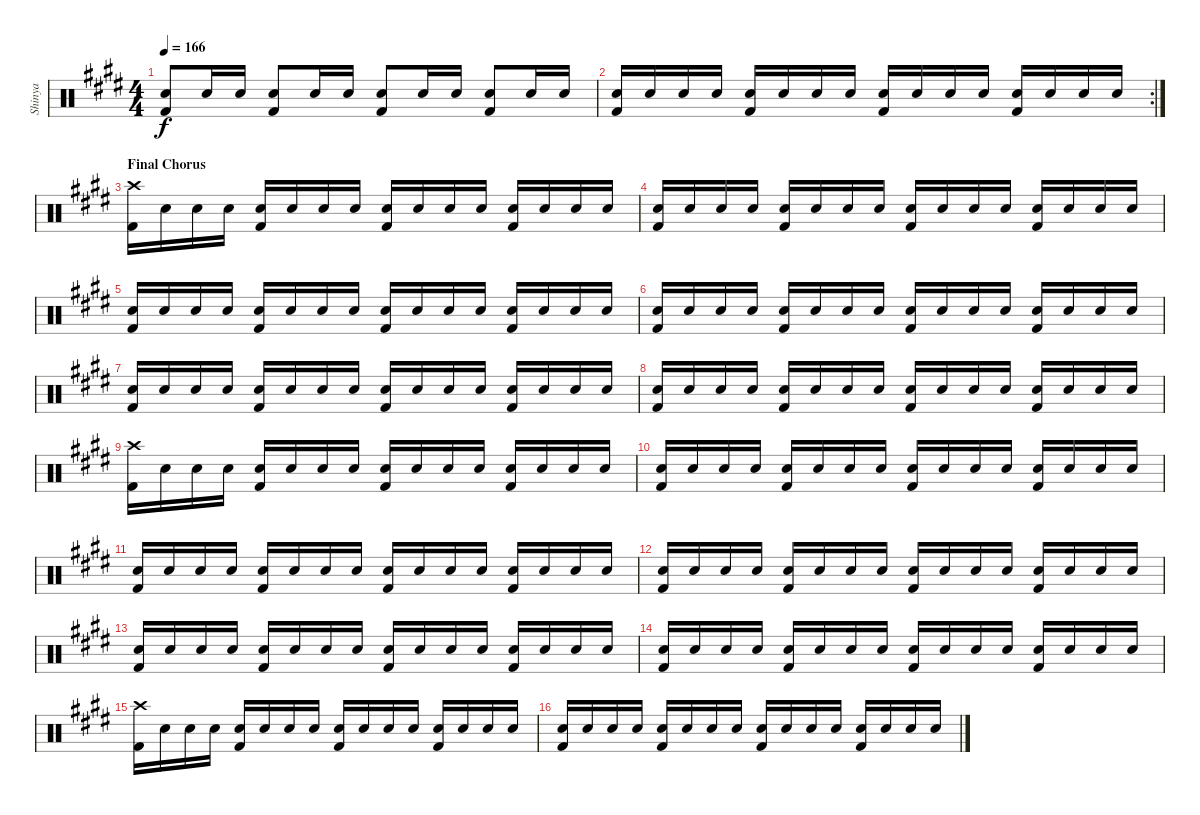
\track ("Shinya" "Shinya") {instrument percussion}
\staff {score}
\articulation defaults
\ts (4 4)
\tempo 166
\clef neutral
\ks e
("Snare (hit) 2" "Kick (hit) 2").8{dy f} "Snare (hit) 2".16 "Snare (hit) 2".16 ("Snare (hit) 2" "Kick (hit) 2").8 "Snare (hit) 2".16 "Snare (hit) 2".16 ("Snare (hit) 2" "Kick (hit) 2").8 "Snare (hit) 2".16 "Snare (hit) 2".16 ("Snare (hit) 2" "Kick (hit) 2").8 "Snare (hit) 2".16 "Snare (hit) 2".16 |
\rc 2
("Snare (hit) 2" "Kick (hit) 2").16 "Snare (hit) 2".16 "Snare (hit) 2".16 "Snare (hit) 2".16 ("Snare (hit) 2" "Kick (hit) 2").16 "Snare (hit) 2".16 "Snare (hit) 2".16 "Snare (hit) 2".16 ("Snare (hit) 2" "Kick (hit) 2").16 "Snare (hit) 2".16 "Snare (hit) 2".16 "Snare (hit) 2".16 ("Snare (hit) 2" "Kick (hit) 2").16 "Snare (hit) 2".16 "Snare (hit) 2".16 "Snare (hit) 2".16 |
\section ("" "Final Chorus")
("Crash high (hit)" "Kick (hit) 2").16 "Snare (hit) 2".16 "Snare (hit) 2".16 "Snare (hit) 2".16 ("Snare (hit) 2" "Kick (hit) 2").16 "Snare (hit) 2".16 "Snare (hit) 2".16 "Snare (hit) 2".16 ("Snare (hit) 2" "Kick (hit) 2").16 "Snare (hit) 2".16 "Snare (hit) 2".16 "Snare (hit) 2".16 ("Snare (hit) 2" "Kick (hit) 2").16 "Snare (hit) 2".16 "Snare (hit) 2".16 "Snare (hit) 2".16 |
("Snare (hit) 2" "Kick (hit) 2").16 "Snare (hit) 2".16 "Snare (hit) 2".16 "Snare (hit) 2".16 ("Snare (hit) 2" "Kick (hit) 2").16 "Snare (hit) 2".16 "Snare (hit) 2".16 "Snare (hit) 2".16 ("Snare (hit) 2" "Kick (hit) 2").16 "Snare (hit) 2".16 "Snare (hit) 2".16 "Snare (hit) 2".16 ("Snare (hit) 2" "Kick (hit) 2").16 "Snare (hit) 2".16 "Snare (hit) 2".16 "Snare (hit) 2".16 |
("Snare (hit) 2" "Kick (hit) 2").16 "Snare (hit) 2".16 "Snare (hit) 2".16 "Snare (hit) 2".16 ("Snare (hit) 2" "Kick (hit) 2").16 "Snare (hit) 2".16 "Snare (hit) 2".16 "Snare (hit) 2".16 ("Snare (hit) 2" "Kick (hit) 2").16 "Snare (hit) 2".16 "Snare (hit) 2".16 "Snare (hit) 2".16 ("Snare (hit) 2" "Kick (hit) 2").16 "Snare (hit) 2".16 "Snare (hit) 2".16 "Snare (hit) 2".16 |
("Snare (hit) 2" "Kick (hit) 2").16 "Snare (hit) 2".16 "Snare (hit) 2".16 "Snare (hit) 2".16 ("Snare (hit) 2" "Kick (hit) 2").16 "Snare (hit) 2".16 "Snare (hit) 2".16 "Snare (hit) 2".16 ("Snare (hit) 2" "Kick (hit) 2").16 "Snare (hit) 2".16 "Snare (hit) 2".16 "Snare (hit) 2".16 ("Snare (hit) 2" "Kick (hit) 2").16 "Snare (hit) 2".16 "Snare (hit) 2".16 "Snare (hit) 2".16 |
("Snare (hit) 2" "Kick (hit) 2").16 "Snare (hit) 2".16 "Snare (hit) 2".16 "Snare (hit) 2".16 ("Snare (hit) 2" "Kick (hit) 2").16 "Snare (hit) 2".16 "Snare (hit) 2".16 "Snare (hit) 2".16 ("Snare (hit) 2" "Kick (hit) 2").16 "Snare (hit) 2".16 "Snare (hit) 2".16 "Snare (hit) 2".16 ("Snare (hit) 2" "Kick (hit) 2").16 "Snare (hit) 2".16 "Snare (hit) 2".16 "Snare (hit) 2".16 |
("Snare (hit) 2" "Kick (hit) 2").16 "Snare (hit) 2".16 "Snare (hit) 2".16 "Snare (hit) 2".16 ("Snare (hit) 2" "Kick (hit) 2").16 "Snare (hit) 2".16 "Snare (hit) 2".16 "Snare (hit) 2".16 ("Snare (hit) 2" "Kick (hit) 2").16 "Snare (hit) 2".16 "Snare (hit) 2".16 "Snare (hit) 2".16 ("Snare (hit) 2" "Kick (hit) 2").16 "Snare (hit) 2".16 "Snare (hit) 2".16 "Snare (hit) 2".16 |
("Crash high (hit)" "Kick (hit) 2").16 "Snare (hit) 2".16 "Snare (hit) 2".16 "Snare (hit) 2".16 ("Snare (hit) 2" "Kick (hit) 2").16 "Snare (hit) 2".16 "Snare (hit) 2".16 "Snare (hit) 2".16 ("Snare (hit) 2" "Kick (hit) 2").16 "Snare (hit) 2".16 "Snare (hit) 2".16 "Snare (hit) 2".16 ("Snare (hit) 2" "Kick (hit) 2").16 "Snare (hit) 2".16 "Snare (hit) 2".16 "Snare (hit) 2".16 |
("Snare (hit) 2" "Kick (hit) 2").16 "Snare (hit) 2".16 "Snare (hit) 2".16 "Snare (hit) 2".16 ("Snare (hit) 2" "Kick (hit) 2").16 "Snare (hit) 2".16 "Snare (hit) 2".16 "Snare (hit) 2".16 ("Snare (hit) 2" "Kick (hit) 2").16 "Snare (hit) 2".16 "Snare (hit) 2".16 "Snare (hit) 2".16 ("Snare (hit) 2" "Kick (hit) 2").16 "Snare (hit) 2".16 "Snare (hit) 2".16 "Snare (hit) 2".16 |
("Snare (hit) 2" "Kick (hit) 2").16 "Snare (hit) 2".16 "Snare (hit) 2".16 "Snare (hit) 2".16 ("Snare (hit) 2" "Kick (hit) 2").16 "Snare (hit) 2".16 "Snare (hit) 2".16 "Snare (hit) 2".16 ("Snare (hit) 2" "Kick (hit) 2").16 "Snare (hit) 2".16 "Snare (hit) 2".16 "Snare (hit) 2".16 ("Snare (hit) 2" "Kick (hit) 2").16 "Snare (hit) 2".16 "Snare (hit) 2".16 "Snare (hit) 2".16 |
("Snare (hit) 2" "Kick (hit) 2").16 "Snare (hit) 2".16 "Snare (hit) 2".16 "Snare (hit) 2".16 ("Snare (hit) 2" "Kick (hit) 2").16 "Snare (hit) 2".16 "Snare (hit) 2".16 "Snare (hit) 2".16 ("Snare (hit) 2" "Kick (hit) 2").16 "Snare (hit) 2".16 "Snare (hit) 2".16 "Snare (hit) 2".16 ("Snare (hit) 2" "Kick (hit) 2").16 "Snare (hit) 2".16 "Snare (hit) 2".16 "Snare (hit) 2".16 |
("Snare (hit) 2" "Kick (hit) 2").16 "Snare (hit) 2".16 "Snare (hit) 2".16 "Snare (hit) 2".16 ("Snare (hit) 2" "Kick (hit) 2").16 "Snare (hit) 2".16 "Snare (hit) 2".16 "Snare (hit) 2".16 ("Snare (hit) 2" "Kick (hit) 2").16 "Snare (hit) 2".16 "Snare (hit) 2".16 "Snare (hit) 2".16 ("Snare (hit) 2" "Kick (hit) 2").16 "Snare (hit) 2".16 "Snare (hit) 2".16 "Snare (hit) 2".16 |
("Snare (hit) 2" "Kick (hit) 2").16 "Snare (hit) 2".16 "Snare (hit) 2".16 "Snare (hit) 2".16 ("Snare (hit) 2" "Kick (hit) 2").16 "Snare (hit) 2".16 "Snare (hit) 2".16 "Snare (hit) 2".16 ("Snare (hit) 2" "Kick (hit) 2").16 "Snare (hit) 2".16 "Snare (hit) 2".16 "Snare (hit) 2".16 ("Snare (hit) 2" "Kick (hit) 2").16 "Snare (hit) 2".16 "Snare (hit) 2".16 "Snare (hit) 2".16 |
("Crash high (hit)" "Kick (hit) 2").16 "Snare (hit) 2".16 "Snare (hit) 2".16 "Snare (hit) 2".16 ("Snare (hit) 2" "Kick (hit) 2").16 "Snare (hit) 2".16 "Snare (hit) 2".16 "Snare (hit) 2".16 ("Snare (hit) 2" "Kick (hit) 2").16 "Snare (hit) 2".16 "Snare (hit) 2".16 "Snare (hit) 2".16 ("Snare (hit) 2" "Kick (hit) 2").16 "Snare (hit) 2".16 "Snare (hit) 2".16 "Snare (hit) 2".16 |
("Snare (hit) 2" "Kick (hit) 2").16 "Snare (hit) 2".16 "Snare (hit) 2".16 "Snare (hit) 2".16 ("Snare (hit) 2" "Kick (hit) 2").16 "Snare (hit) 2".16 "Snare (hit) 2".16 "Snare (hit) 2".16 ("Snare (hit) 2" "Kick (hit) 2").16 "Snare (hit) 2".16 "Snare (hit) 2".16 "Snare (hit) 2".16 ("Snare (hit) 2" "Kick (hit) 2").16 "Snare (hit) 2".16 "Snare (hit) 2".16 "Snare (hit) 2".16
